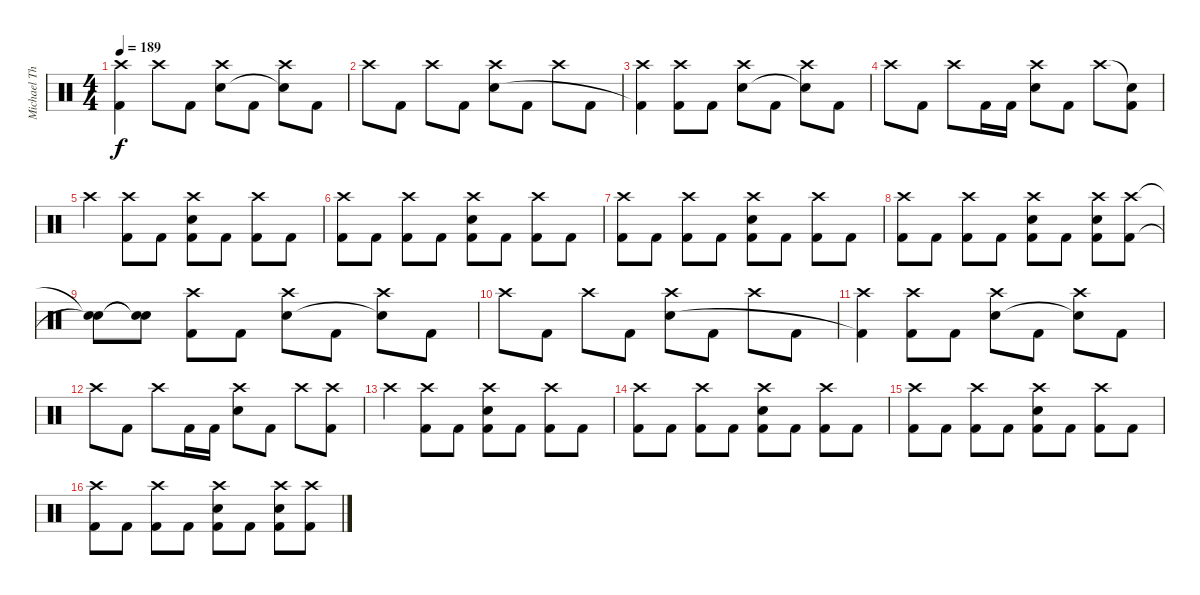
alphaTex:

\track ("Michael Thomas" "Michael Th") {instrument percussion}
\staff {score}
\articulation defaults
\ts (4 4)
\tempo 189
\clef neutral
\ks c
("Crash high (hit)"{t} "Kick (hit) 2"{t}).4{dy f} "Crash high (hit)".8 "Kick (hit) 2".8 ("Crash high (hit)" "Electric Snare (hit)").8 "Kick (hit) 2".8 ("Crash high (hit)" "Snare (hit)"{t}).8 "Kick (hit) 2".8 |
"Crash high (hit)".8 "Kick (hit) 2".8 "Crash high (hit)".8 "Kick (hit) 2".8 ("Crash high (hit)" "Electric Snare (hit)").8 "Kick (hit) 2".8 "Crash high (hit)".8 "Kick (hit) 2".8 |
("Crash high (hit)" "Kick (hit) 2"{t}).4 ("Crash high (hit)" "Kick (hit) 2").8 "Kick (hit) 2".8 ("Crash high (hit)" "Electric Snare (hit)").8 "Kick (hit) 2".8 ("Crash high (hit)" "Snare (hit)"{t}).8 "Kick (hit) 2".8 |
"Crash high (hit)".8 "Kick (hit) 2".8 "Crash high (hit)".8 "Kick (hit) 2".16 "Kick (hit) 2".16 ("Crash high (hit)" "Electric Snare (hit)").8 "Kick (hit) 2".8 "Crash high (hit)".8 ("Snare (hit)"{t} "Kick (hit) 2").8 |
"Crash high (hit)".4 ("Crash high (hit)" "Kick (hit) 2").8 "Kick (hit) 2".8 ("Crash high (hit)" "Electric Snare (hit)" "Kick (hit) 2").8 "Kick (hit) 2".8 ("Crash high (hit)" "Kick (hit) 2").8 "Kick (hit) 2".8 |
("Crash high (hit)" "Kick (hit) 2").8 "Kick (hit) 2".8 ("Crash high (hit)" "Kick (hit) 2").8 "Kick (hit) 2".8 ("Crash high (hit)" "Electric Snare (hit)" "Kick (hit) 2").8 "Kick (hit) 2".8 ("Crash high (hit)" "Kick (hit) 2").8 "Kick (hit) 2".8 |
("Crash high (hit)" "Kick (hit) 2").8 "Kick (hit) 2".8 ("Crash high (hit)" "Kick (hit) 2").8 "Kick (hit) 2".8 ("Crash high (hit)" "Electric Snare (hit)" "Kick (hit) 2").8 "Kick (hit) 2".8 ("Crash high (hit)" "Kick (hit) 2").8 "Kick (hit) 2".8 |
("Crash high (hit)" "Kick (hit) 2").8 "Kick (hit) 2".8 ("Crash high (hit)" "Kick (hit) 2").8 "Kick (hit) 2".8 ("Crash high (hit)" "Electric Snare (hit)" "Kick (hit) 2").8 "Kick (hit) 2".8 ("Crash high (hit)" "Electric Snare (hit)" "Kick (hit) 2").8 ("Crash high (hit)" "Kick (hit) 2").8 |
("Snare (hit)"{t} "Snare (hit)"{t}).8 ("Snare (hit)"{t} "Snare (hit)"{t}).8 ("Crash high (hit)" "Kick (hit) 2").8 "Kick (hit) 2".8 ("Crash high (hit)" "Electric Snare (hit)").8 "Kick (hit) 2".8 ("Crash high (hit)" "Snare (hit)"{t}).8 "Kick (hit) 2".8 |
"Crash high (hit)".8 "Kick (hit) 2".8 "Crash high (hit)".8 "Kick (hit) 2".8 ("Crash high (hit)" "Electric Snare (hit)").8 "Kick (hit) 2".8 "Crash high (hit)".8 "Kick (hit) 2".8 |
("Crash high (hit)" "Kick (hit) 2"{t}).4 ("Crash high (hit)" "Kick (hit) 2").8 "Kick (hit) 2".8 ("Crash high (hit)" "Electric Snare (hit)").8 "Kick (hit) 2".8 ("Crash high (hit)" "Snare (hit)"{t}).8 "Kick (hit) 2".8 |
"Crash high (hit)".8 "Kick (hit) 2".8 "Crash high (hit)".8 "Kick (hit) 2".16 "Kick (hit) 2".16 ("Crash high (hit)" "Electric Snare (hit)").8 "Kick (hit) 2".8 "Crash high (hit)".8 ("Crash high (hit)" "Kick (hit) 2").8 |
"Crash high (hit)".4 ("Crash high (hit)" "Kick (hit) 2").8 "Kick (hit) 2".8 ("Crash high (hit)" "Electric Snare (hit)" "Kick (hit) 2").8 "Kick (hit) 2".8 ("Crash high (hit)" "Kick (hit) 2").8 "Kick (hit) 2".8 |
("Crash high (hit)" "Kick (hit) 2").8 "Kick (hit) 2".8 ("Crash high (hit)" "Kick (hit) 2").8 "Kick (hit) 2".8 ("Crash high (hit)" "Electric Snare (hit)" "Kick (hit) 2").8 "Kick (hit) 2".8 ("Crash high (hit)" "Kick (hit) 2").8 "Kick (hit) 2".8 |
("Crash high (hit)" "Kick (hit) 2").8 "Kick (hit) 2".8 ("Crash high (hit)" "Kick (hit) 2").8 "Kick (hit) 2".8 ("Crash high (hit)" "Electric Snare (hit)" "Kick (hit) 2").8 "Kick (hit) 2".8 ("Crash high (hit)" "Kick (hit) 2").8 "Kick (hit) 2".8 |
("Crash high (hit)" "Kick (hit) 2").8 "Kick (hit) 2".8 ("Crash high (hit)" "Kick (hit) 2").8 "Kick (hit) 2".8 ("Crash high (hit)" "Electric Snare (hit)" "Kick (hit) 2").8 "Kick (hit) 2".8 ("Crash high (hit)" "Electric Snare (hit)" "Kick (hit) 2").8 ("Crash high (hit)" "Kick (hit) 2").8
